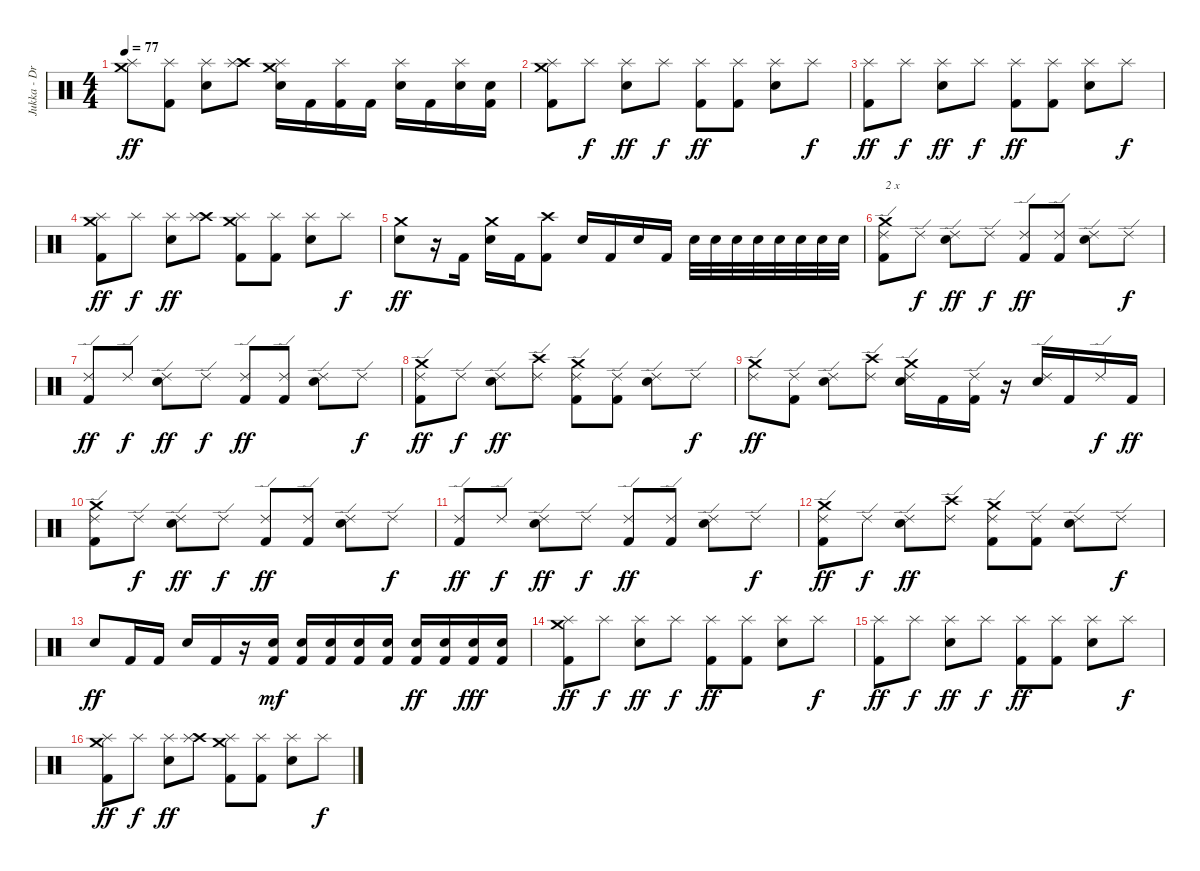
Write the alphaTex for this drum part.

\track ("Jukka - Drums" "Jukka - Dr") {instrument percussion}
\staff {score}
\articulation defaults
\ts (4 4)
\tempo 77
\clef neutral
\ks c
("Crash medium (hit)" "Splash (hit)").8{dy ff} ("Splash (hit)" "Kick (hit) 2").8 ("Splash (hit)" "Electric Snare (hit)").8 ("Crash high (hit)" "Splash (hit)").8 ("Crash medium (hit)" "Splash (hit)" "Electric Snare (hit)").16 "Kick (hit) 2".16 ("Splash (hit)" "Kick (hit) 2").16 "Kick (hit) 2".16 ("Splash (hit)" "Electric Snare (hit)").16 "Kick (hit) 2".16 ("Splash (hit)" "Electric Snare (hit)").16 ("Electric Snare (hit)" "Kick (hit) 2").16 |
("Crash medium (hit)" "Splash (hit)" "Kick (hit) 2").8 "Splash (hit)".8{dy f} ("Splash (hit)" "Electric Snare (hit)").8{dy ff} "Splash (hit)".8{dy f} ("Splash (hit)" "Kick (hit) 2").8{dy ff} ("Splash (hit)" "Kick (hit) 2").8 ("Splash (hit)" "Electric Snare (hit)").8 "Splash (hit)".8{dy f} |
("Splash (hit)" "Kick (hit) 2").8{dy ff} "Splash (hit)".8{dy f} ("Splash (hit)" "Electric Snare (hit)").8{dy ff} "Splash (hit)".8{dy f} ("Splash (hit)" "Kick (hit) 2").8{dy ff} ("Splash (hit)" "Kick (hit) 2").8 ("Splash (hit)" "Electric Snare (hit)").8 "Splash (hit)".8{dy f} |
("Crash medium (hit)" "Splash (hit)" "Kick (hit) 2").8{dy ff} "Splash (hit)".8{dy f} ("Splash (hit)" "Electric Snare (hit)").8{dy ff} ("Crash high (hit)" "Splash (hit)").8 ("Crash medium (hit)" "Splash (hit)" "Kick (hit) 2").8 ("Splash (hit)" "Kick (hit) 2").8 ("Splash (hit)" "Electric Snare (hit)").8 "Splash (hit)".8{dy f} |
("Crash medium (hit)" "Electric Snare (hit)").8{dy ff} r.16 "Kick (hit) 2".16 ("Crash medium (hit)" "Electric Snare (hit)").16 "Kick (hit) 2".16 ("Crash high (hit)" "Kick (hit) 2").8 "Electric Snare (hit)".16 "Kick (hit) 2".16 "Electric Snare (hit)".16 "Kick (hit) 2".16 "Electric Snare (hit)".32 "Electric Snare (hit)".32 "Electric Snare (hit)".32 "Electric Snare (hit)".32 "Electric Snare (hit)".32 "Electric Snare (hit)".32 "Electric Snare (hit)".32 "Electric Snare (hit)".32 |
("Crash medium (hit)" "Ride (edge) 2" "Kick (hit) 2").8{txt "2 x"} "Ride (edge) 2".8{dy f} ("Ride (edge) 2" "Electric Snare (hit)").8{dy ff} "Ride (edge) 2".8{dy f} ("Ride (edge) 2" "Kick (hit) 2").8{dy ff} ("Ride (edge) 2" "Kick (hit) 2").8 ("Ride (edge) 2" "Electric Snare (hit)").8 "Ride (edge) 2".8{dy f} |
("Ride (edge) 2" "Kick (hit) 2").8{dy ff} "Ride (edge) 2".8{dy f} ("Ride (edge) 2" "Electric Snare (hit)").8{dy ff} "Ride (edge) 2".8{dy f} ("Ride (edge) 2" "Kick (hit) 2").8{dy ff} ("Ride (edge) 2" "Kick (hit) 2").8 ("Ride (edge) 2" "Electric Snare (hit)").8 "Ride (edge) 2".8{dy f} |
("Crash medium (hit)" "Ride (edge) 2" "Kick (hit) 2").8{dy ff} "Ride (edge) 2".8{dy f} ("Ride (edge) 2" "Electric Snare (hit)").8{dy ff} ("Crash high (hit)" "Ride (edge) 2").8 ("Crash medium (hit)" "Ride (edge) 2" "Kick (hit) 2").8 ("Ride (edge) 2" "Kick (hit) 2").8 ("Ride (edge) 2" "Electric Snare (hit)").8 "Ride (edge) 2".8{dy f} |
("Crash medium (hit)" "Ride (edge) 2").8{dy ff} ("Ride (edge) 2" "Kick (hit) 2").8 ("Ride (edge) 2" "Electric Snare (hit)").8 ("Crash high (hit)" "Ride (edge) 2").8 ("Crash medium (hit)" "Ride (edge) 2" "Electric Snare (hit)").16 "Kick (hit) 2".16 ("Ride (edge) 2" "Kick (hit) 2").16 r.16 ("Ride (edge) 2" "Electric Snare (hit)").16 "Kick (hit) 2".16 "Ride (edge) 2".16{dy f} "Kick (hit) 2".16{dy ff} |
("Crash medium (hit)" "Ride (edge) 2" "Kick (hit) 2").8 "Ride (edge) 2".8{dy f} ("Ride (edge) 2" "Electric Snare (hit)").8{dy ff} "Ride (edge) 2".8{dy f} ("Ride (edge) 2" "Kick (hit) 2").8{dy ff} ("Ride (edge) 2" "Kick (hit) 2").8 ("Ride (edge) 2" "Electric Snare (hit)").8 "Ride (edge) 2".8{dy f} |
("Ride (edge) 2" "Kick (hit) 2").8{dy ff} "Ride (edge) 2".8{dy f} ("Ride (edge) 2" "Electric Snare (hit)").8{dy ff} "Ride (edge) 2".8{dy f} ("Ride (edge) 2" "Kick (hit) 2").8{dy ff} ("Ride (edge) 2" "Kick (hit) 2").8 ("Ride (edge) 2" "Electric Snare (hit)").8 "Ride (edge) 2".8{dy f} |
("Crash medium (hit)" "Ride (edge) 2" "Kick (hit) 2").8{dy ff} "Ride (edge) 2".8{dy f} ("Ride (edge) 2" "Electric Snare (hit)").8{dy ff} ("Crash high (hit)" "Ride (edge) 2").8 ("Crash medium (hit)" "Ride (edge) 2" "Kick (hit) 2").8 ("Ride (edge) 2" "Kick (hit) 2").8 ("Ride (edge) 2" "Electric Snare (hit)").8 "Ride (edge) 2".8{dy f} |
"Electric Snare (hit)".8{dy ff} "Kick (hit) 2".16 "Kick (hit) 2".16 "Electric Snare (hit)".16 "Kick (hit) 2".16 r.16 ("Electric Snare (hit)" "Kick (hit) 2").16{dy mf} ("Electric Snare (hit)" "Kick (hit) 2").16 ("Electric Snare (hit)" "Kick (hit) 2").16 ("Electric Snare (hit)" "Kick (hit) 2").16 ("Electric Snare (hit)" "Kick (hit) 2").16 ("Electric Snare (hit)" "Kick (hit) 2").16{dy ff} ("Electric Snare (hit)" "Kick (hit) 2").16 ("Electric Snare (hit)" "Kick (hit) 2").16{dy fff} ("Electric Snare (hit)" "Kick (hit) 2").16 |
("Crash medium (hit)" "Splash (hit)" "Kick (hit) 2").8{dy ff} "Splash (hit)".8{dy f} ("Splash (hit)" "Electric Snare (hit)").8{dy ff} "Splash (hit)".8{dy f} ("Splash (hit)" "Kick (hit) 2").8{dy ff} ("Splash (hit)" "Kick (hit) 2").8 ("Splash (hit)" "Electric Snare (hit)").8 "Splash (hit)".8{dy f} |
("Splash (hit)" "Kick (hit) 2").8{dy ff} "Splash (hit)".8{dy f} ("Splash (hit)" "Electric Snare (hit)").8{dy ff} "Splash (hit)".8{dy f} ("Splash (hit)" "Kick (hit) 2").8{dy ff} ("Splash (hit)" "Kick (hit) 2").8 ("Splash (hit)" "Electric Snare (hit)").8 "Splash (hit)".8{dy f} |
("Crash medium (hit)" "Splash (hit)" "Kick (hit) 2").8{dy ff} "Splash (hit)".8{dy f} ("Splash (hit)" "Electric Snare (hit)").8{dy ff} ("Crash high (hit)" "Splash (hit)").8 ("Crash medium (hit)" "Splash (hit)" "Kick (hit) 2").8 ("Splash (hit)" "Kick (hit) 2").8 ("Splash (hit)" "Electric Snare (hit)").8 "Splash (hit)".8{dy f}
